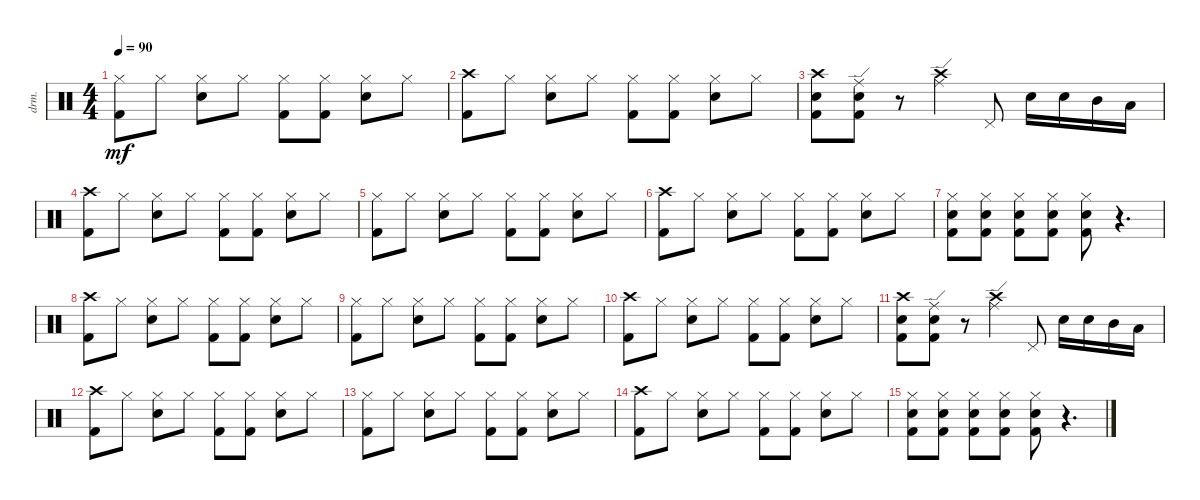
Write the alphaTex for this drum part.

\defaultSystemsLayout 4
\bracketExtendMode groupsimilarinstruments
\useSystemSignSeparator
\otherSystemsTrackNameOrientation horizontal
\chordDiagramsInScore
\track ("Drumkit" "drm.") {instrument percussion}
\staff {score}
\articulation defaults
\ts (4 4)
\tempo 90
\clef neutral
\ks c
("Kick (hit) 2" "Hi-Hat (closed)").8{dy mf beam Down} "Hi-Hat (closed)".8{beam Down} ("Hi-Hat (closed)" "Snare (hit) 2").8{beam Down} "Hi-Hat (closed)".8{beam Down} ("Hi-Hat (closed)" "Kick (hit) 2").8{beam Down} ("Hi-Hat (closed)" "Kick (hit) 2").8{beam Down} ("Hi-Hat (closed)" "Snare (hit) 2").8{beam Down} "Hi-Hat (closed)".8{beam Down} |
("Crash high (hit)" "Kick (hit) 2").8{beam Down} "Hi-Hat (closed)".8{beam Down} ("Hi-Hat (closed)" "Snare (hit) 2").8{beam Down} "Hi-Hat (closed)".8{beam Down} ("Hi-Hat (closed)" "Kick (hit) 2").8{beam Down} ("Hi-Hat (closed)" "Kick (hit) 2").8{beam Down} ("Hi-Hat (closed)" "Snare (hit) 2").8{beam Down} "Hi-Hat (closed)".8{beam Down} |
("Crash high (hit)" "Kick (hit) 2" "Snare (hit) 2").8{beam Down} ("Ride (edge)" "Snare (hit) 2" "Kick (hit) 2").8{beam Down} r.8{beam Down} ("Crash high (hit)" "Ride (edge)").4{beam Down} "Pedal Hi-Hat (hit)".8{beam Up} "Snare (hit) 2".16{beam Down} "Snare (hit) 2".16{beam Down} "Mid Tom (hit)".16{beam Down} "Low Tom (hit)".16{beam Down} |
("Crash high (hit)" "Kick (hit) 2").8{beam Down} "Hi-Hat (closed)".8{beam Down} ("Hi-Hat (closed)" "Snare (hit) 2").8{beam Down} "Hi-Hat (closed)".8{beam Down} ("Hi-Hat (closed)" "Kick (hit) 2").8{beam Down} ("Hi-Hat (closed)" "Kick (hit) 2").8{beam Down} ("Hi-Hat (closed)" "Snare (hit) 2").8{beam Down} "Hi-Hat (closed)".8{beam Down} |
("Kick (hit) 2" "Hi-Hat (closed)").8{beam Down} "Hi-Hat (closed)".8{beam Down} ("Hi-Hat (closed)" "Snare (hit) 2").8{beam Down} "Hi-Hat (closed)".8{beam Down} ("Hi-Hat (closed)" "Kick (hit) 2").8{beam Down} ("Hi-Hat (closed)" "Kick (hit) 2").8{beam Down} ("Hi-Hat (closed)" "Snare (hit) 2").8{beam Down} "Hi-Hat (closed)".8{beam Down} |
("Crash high (hit)" "Kick (hit) 2").8{beam Down} "Hi-Hat (closed)".8{beam Down} ("Hi-Hat (closed)" "Snare (hit) 2").8{beam Down} "Hi-Hat (closed)".8{beam Down} ("Hi-Hat (closed)" "Kick (hit) 2").8{beam Down} ("Hi-Hat (closed)" "Kick (hit) 2").8{beam Down} ("Hi-Hat (closed)" "Snare (hit) 2").8{beam Down} "Hi-Hat (closed)".8{beam Down} |
("Hi-Hat (closed)" "Snare (hit) 2" "Kick (hit) 2").8{beam Down} ("Hi-Hat (closed)" "Snare (hit) 2" "Kick (hit) 2").8{beam Down} ("Hi-Hat (closed)" "Snare (hit) 2" "Kick (hit) 2").8{beam Down} ("Hi-Hat (closed)" "Snare (hit) 2" "Kick (hit) 2").8{beam Down} ("Hi-Hat (closed)" "Snare (hit) 2" "Kick (hit) 2").8{beam Down} r.4{d beam Down} |
("Crash high (hit)" "Kick (hit) 2").8{beam Down} "Hi-Hat (closed)".8{beam Down} ("Hi-Hat (closed)" "Snare (hit) 2").8{beam Down} "Hi-Hat (closed)".8{beam Down} ("Hi-Hat (closed)" "Kick (hit) 2").8{beam Down} ("Hi-Hat (closed)" "Kick (hit) 2").8{beam Down} ("Hi-Hat (closed)" "Snare (hit) 2").8{beam Down} "Hi-Hat (closed)".8{beam Down} |
("Kick (hit) 2" "Hi-Hat (closed)").8{beam Down} "Hi-Hat (closed)".8{beam Down} ("Hi-Hat (closed)" "Snare (hit) 2").8{beam Down} "Hi-Hat (closed)".8{beam Down} ("Hi-Hat (closed)" "Kick (hit) 2").8{beam Down} ("Hi-Hat (closed)" "Kick (hit) 2").8{beam Down} ("Hi-Hat (closed)" "Snare (hit) 2").8{beam Down} "Hi-Hat (closed)".8{beam Down} |
("Crash high (hit)" "Kick (hit) 2").8{beam Down} "Hi-Hat (closed)".8{beam Down} ("Hi-Hat (closed)" "Snare (hit) 2").8{beam Down} "Hi-Hat (closed)".8{beam Down} ("Hi-Hat (closed)" "Kick (hit) 2").8{beam Down} ("Hi-Hat (closed)" "Kick (hit) 2").8{beam Down} ("Hi-Hat (closed)" "Snare (hit) 2").8{beam Down} "Hi-Hat (closed)".8{beam Down} |
("Crash high (hit)" "Kick (hit) 2" "Snare (hit) 2").8{beam Down} ("Ride (edge)" "Snare (hit) 2" "Kick (hit) 2").8{beam Down} r.8{beam Down} ("Crash high (hit)" "Ride (edge)").4{beam Down} "Pedal Hi-Hat (hit)".8{beam Up} "Snare (hit) 2".16{beam Down} "Snare (hit) 2".16{beam Down} "Mid Tom (hit)".16{beam Down} "Low Tom (hit)".16{beam Down} |
("Crash high (hit)" "Kick (hit) 2").8{beam Down} "Hi-Hat (closed)".8{beam Down} ("Hi-Hat (closed)" "Snare (hit) 2").8{beam Down} "Hi-Hat (closed)".8{beam Down} ("Hi-Hat (closed)" "Kick (hit) 2").8{beam Down} ("Hi-Hat (closed)" "Kick (hit) 2").8{beam Down} ("Hi-Hat (closed)" "Snare (hit) 2").8{beam Down} "Hi-Hat (closed)".8{beam Down} |
("Kick (hit) 2" "Hi-Hat (closed)").8{beam Down} "Hi-Hat (closed)".8{beam Down} ("Hi-Hat (closed)" "Snare (hit) 2").8{beam Down} "Hi-Hat (closed)".8{beam Down} ("Hi-Hat (closed)" "Kick (hit) 2").8{beam Down} ("Hi-Hat (closed)" "Kick (hit) 2").8{beam Down} ("Hi-Hat (closed)" "Snare (hit) 2").8{beam Down} "Hi-Hat (closed)".8{beam Down} |
("Crash high (hit)" "Kick (hit) 2").8{beam Down} "Hi-Hat (closed)".8{beam Down} ("Hi-Hat (closed)" "Snare (hit) 2").8{beam Down} "Hi-Hat (closed)".8{beam Down} ("Hi-Hat (closed)" "Kick (hit) 2").8{beam Down} ("Hi-Hat (closed)" "Kick (hit) 2").8{beam Down} ("Hi-Hat (closed)" "Snare (hit) 2").8{beam Down} "Hi-Hat (closed)".8{beam Down} |
("Hi-Hat (closed)" "Snare (hit) 2" "Kick (hit) 2").8{beam Down} ("Hi-Hat (closed)" "Snare (hit) 2" "Kick (hit) 2").8{beam Down} ("Hi-Hat (closed)" "Snare (hit) 2" "Kick (hit) 2").8{beam Down} ("Hi-Hat (closed)" "Snare (hit) 2" "Kick (hit) 2").8{beam Down} ("Hi-Hat (closed)" "Snare (hit) 2" "Kick (hit) 2").8{beam Down} r.4{d beam Down}
